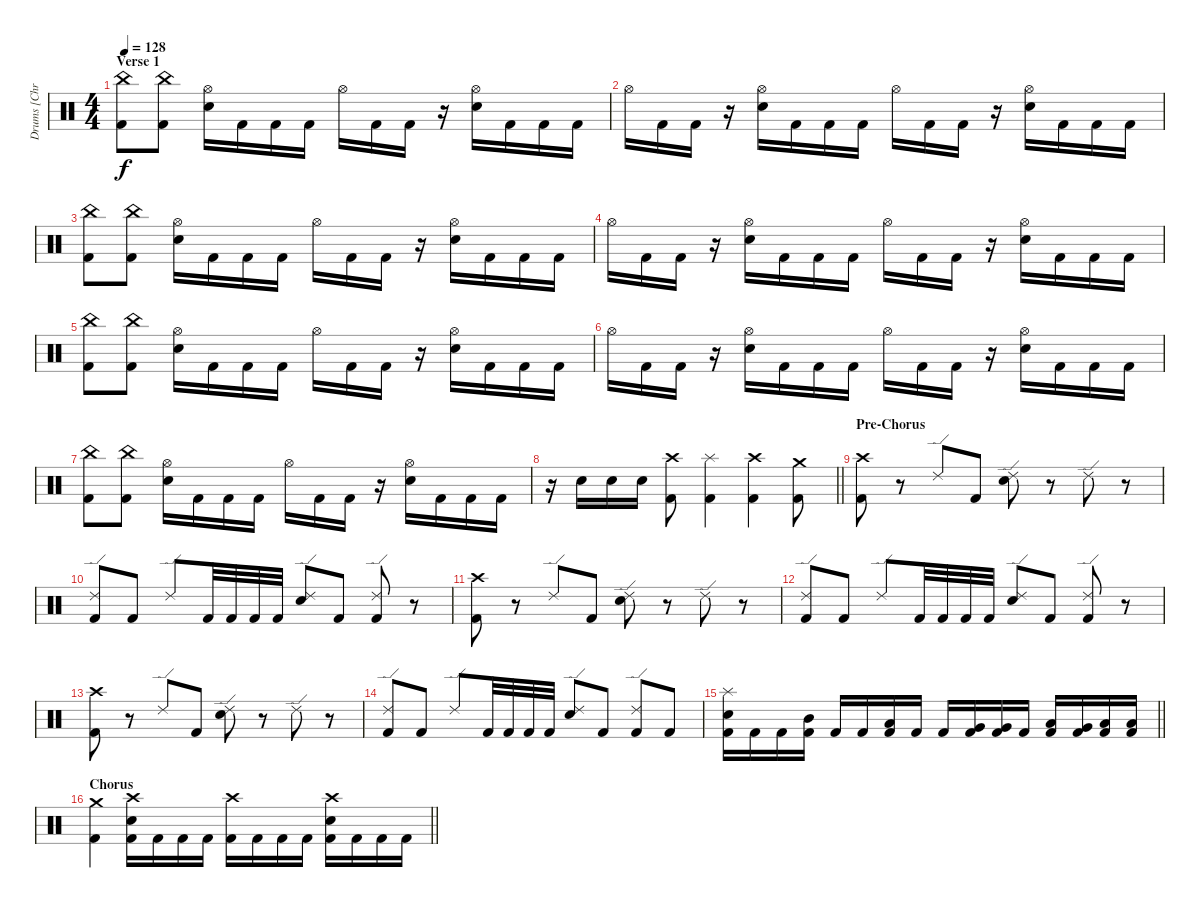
\track ("Drums [Chris Adler]" "Drums [Chr") {instrument percussion}
\staff {score}
\articulation defaults
\ts (4 4)
\section ("" "Verse 1")
\tempo 128
\clef neutral
\ks c
("China (hit)" "Kick (hit) 2").8{dy f} ("China (hit)" "Kick (hit) 2").8 ("Hi-Hat (open)" "Snare (hit) 2").16 "Kick (hit) 2".16 "Kick (hit) 2".16 "Kick (hit) 2".16 "Hi-Hat (open)".16 "Kick (hit) 2".16 "Kick (hit) 2".16 r.16 ("Hi-Hat (open)" "Snare (hit) 2").16 "Kick (hit) 2".16 "Kick (hit) 2".16 "Kick (hit) 2".16 |
"Hi-Hat (open)".16 "Kick (hit) 2".16 "Kick (hit) 2".16 r.16 ("Hi-Hat (open)" "Snare (hit) 2").16 "Kick (hit) 2".16 "Kick (hit) 2".16 "Kick (hit) 2".16 "Hi-Hat (open)".16 "Kick (hit) 2".16 "Kick (hit) 2".16 r.16 ("Hi-Hat (open)" "Snare (hit) 2").16 "Kick (hit) 2".16 "Kick (hit) 2".16 "Kick (hit) 2".16 |
("China (hit)" "Kick (hit) 2").8 ("China (hit)" "Kick (hit) 2").8 ("Hi-Hat (open)" "Snare (hit) 2").16 "Kick (hit) 2".16 "Kick (hit) 2".16 "Kick (hit) 2".16 "Hi-Hat (open)".16 "Kick (hit) 2".16 "Kick (hit) 2".16 r.16 ("Hi-Hat (open)" "Snare (hit) 2").16 "Kick (hit) 2".16 "Kick (hit) 2".16 "Kick (hit) 2".16 |
"Hi-Hat (open)".16 "Kick (hit) 2".16 "Kick (hit) 2".16 r.16 ("Hi-Hat (open)" "Snare (hit) 2").16 "Kick (hit) 2".16 "Kick (hit) 2".16 "Kick (hit) 2".16 "Hi-Hat (open)".16 "Kick (hit) 2".16 "Kick (hit) 2".16 r.16 ("Hi-Hat (open)" "Snare (hit) 2").16 "Kick (hit) 2".16 "Kick (hit) 2".16 "Kick (hit) 2".16 |
("China (hit)" "Kick (hit) 2").8 ("China (hit)" "Kick (hit) 2").8 ("Hi-Hat (open)" "Snare (hit) 2").16 "Kick (hit) 2".16 "Kick (hit) 2".16 "Kick (hit) 2".16 "Hi-Hat (open)".16 "Kick (hit) 2".16 "Kick (hit) 2".16 r.16 ("Hi-Hat (open)" "Snare (hit) 2").16 "Kick (hit) 2".16 "Kick (hit) 2".16 "Kick (hit) 2".16 |
"Hi-Hat (open)".16 "Kick (hit) 2".16 "Kick (hit) 2".16 r.16 ("Hi-Hat (open)" "Snare (hit) 2").16 "Kick (hit) 2".16 "Kick (hit) 2".16 "Kick (hit) 2".16 "Hi-Hat (open)".16 "Kick (hit) 2".16 "Kick (hit) 2".16 r.16 ("Hi-Hat (open)" "Snare (hit) 2").16 "Kick (hit) 2".16 "Kick (hit) 2".16 "Kick (hit) 2".16 |
("China (hit)" "Kick (hit) 2").8 ("China (hit)" "Kick (hit) 2").8 ("Hi-Hat (open)" "Snare (hit) 2").16 "Kick (hit) 2".16 "Kick (hit) 2".16 "Kick (hit) 2".16 "Hi-Hat (open)".16 "Kick (hit) 2".16 "Kick (hit) 2".16 r.16 ("Hi-Hat (open)" "Snare (hit) 2").16 "Kick (hit) 2".16 "Kick (hit) 2".16 "Kick (hit) 2".16 |
\barLineRight lightlight
r.16 "Snare (hit) 2".16 "Snare (hit) 2".16 "Snare (hit) 2".16 ("Crash high (hit)" "Kick (hit) 2").8 ("Splash (hit)" "Kick (hit) 2").4 ("Crash high (hit)" "Kick (hit) 2").4 ("Crash medium (hit)" "Kick (hit) 2").8 |
\section ("" "Pre-Chorus")
("Crash high (hit)" "Kick (hit) 2").8 r.8 "Ride (edge) 2".8 "Kick (hit) 2".8 ("Ride (edge) 2" "Snare (hit) 2").8 r.8 "Ride (edge) 2".8 r.8 |
("Ride (edge) 2" "Kick (hit) 2").8 "Kick (hit) 2".8 "Ride (edge) 2".8 "Kick (hit) 2".32 "Kick (hit) 2".32 "Kick (hit) 2".32 "Kick (hit) 2".32 ("Ride (edge) 2" "Snare (hit) 2").8 "Kick (hit) 2".8 ("Ride (edge) 2" "Kick (hit) 2").8 r.8 |
("Crash high (hit)" "Kick (hit) 2").8 r.8 "Ride (edge) 2".8 "Kick (hit) 2".8 ("Ride (edge) 2" "Snare (hit) 2").8 r.8 "Ride (edge) 2".8 r.8 |
("Ride (edge) 2" "Kick (hit) 2").8 "Kick (hit) 2".8 "Ride (edge) 2".8 "Kick (hit) 2".32 "Kick (hit) 2".32 "Kick (hit) 2".32 "Kick (hit) 2".32 ("Ride (edge) 2" "Snare (hit) 2").8 "Kick (hit) 2".8 ("Ride (edge) 2" "Kick (hit) 2").8 r.8 |
("Crash high (hit)" "Kick (hit) 2").8 r.8 "Ride (edge) 2".8 "Kick (hit) 2".8 ("Ride (edge) 2" "Snare (hit) 2").8 r.8 "Ride (edge) 2".8 r.8 |
("Ride (edge) 2" "Kick (hit) 2").8 "Kick (hit) 2".8 "Ride (edge) 2".8 "Kick (hit) 2".32 "Kick (hit) 2".32 "Kick (hit) 2".32 "Kick (hit) 2".32 ("Ride (edge) 2" "Snare (hit) 2").8 "Kick (hit) 2".8 ("Ride (edge) 2" "Kick (hit) 2").8 "Kick (hit) 2".8 |
\barLineRight lightlight
("Splash (hit)" "Snare (hit) 2" "Kick (hit) 2").16 "Kick (hit) 2".16 "Kick (hit) 2".16 ("Mid Tom (hit)" "Kick (hit) 2").16 "Kick (hit) 2".16 "Kick (hit) 2".16 ("Low Tom (hit)" "Kick (hit) 2").16 "Kick (hit) 2".16 "Kick (hit) 2".16 ("Very Low Tom (hit)" "Kick (hit) 2").16 ("Very Low Tom (hit)" "Kick (hit) 2").16 "Kick (hit) 2".16 ("Low Floor Tom (hit)" "Kick (hit) 2").16 ("Very Low Tom (hit)" "Kick (hit) 2").16 ("Low Floor Tom (hit)" "Kick (hit) 2").16 ("Low Floor Tom (hit)" "Kick (hit) 2").16 |
\section ("" "Chorus")
\barLineRight lightlight
("Crash medium (hit)" "Kick (hit) 2").4 ("Crash high (hit)" "Snare (hit) 2" "Kick (hit) 2").16 "Kick (hit) 2".16 "Kick (hit) 2".16 "Kick (hit) 2".16 ("Crash high (hit)" "Kick (hit) 2").16 "Kick (hit) 2".16 "Kick (hit) 2".16 "Kick (hit) 2".16 ("Crash high (hit)" "Snare (hit) 2" "Kick (hit) 2").16 "Kick (hit) 2".16 "Kick (hit) 2".16 "Kick (hit) 2".16
